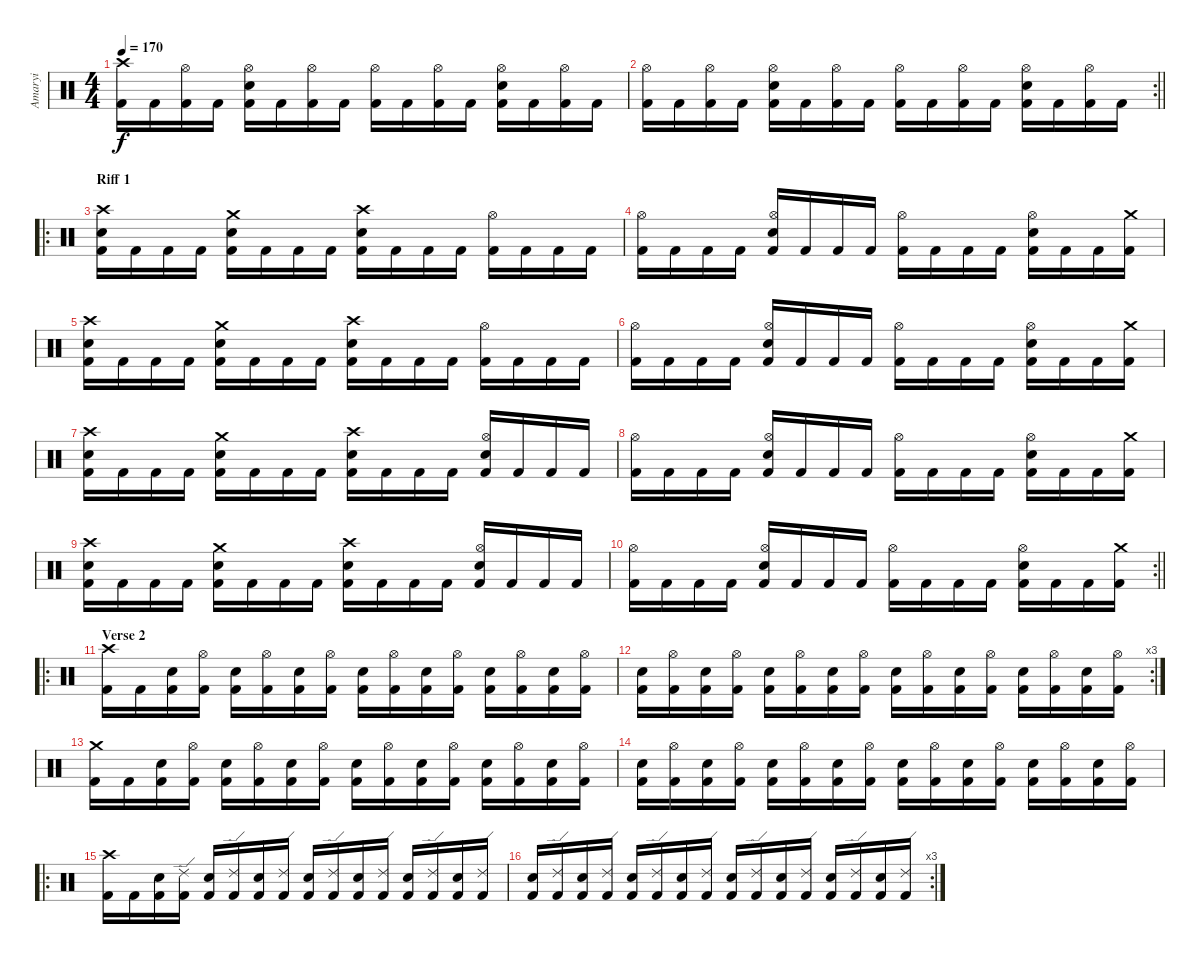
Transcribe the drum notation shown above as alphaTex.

\track ("Amaryi" "Amaryi") {instrument percussion}
\staff {score}
\articulation defaults
\ts (4 4)
\tempo 170
\clef neutral
\ks c
("Crash high (hit)" "Kick (hit) 2").16{dy f} "Kick (hit) 2".16 ("Hi-Hat (open)" "Kick (hit) 2").16 "Kick (hit) 2".16 ("Hi-Hat (open)" "Electric Snare (hit)" "Kick (hit) 2").16 "Kick (hit) 2".16 ("Hi-Hat (open)" "Kick (hit) 2").16 "Kick (hit) 2".16 ("Hi-Hat (open)" "Kick (hit) 2").16 "Kick (hit) 2".16 ("Hi-Hat (open)" "Kick (hit) 2").16 "Kick (hit) 2".16 ("Hi-Hat (open)" "Electric Snare (hit)" "Kick (hit) 2").16 "Kick (hit) 2".16 ("Hi-Hat (open)" "Kick (hit) 2").16 "Kick (hit) 2".16 |
\rc 2
\barLineRight lightlight
("Hi-Hat (open)" "Kick (hit) 2").16 "Kick (hit) 2".16 ("Hi-Hat (open)" "Kick (hit) 2").16 "Kick (hit) 2".16 ("Hi-Hat (open)" "Electric Snare (hit)" "Kick (hit) 2").16 "Kick (hit) 2".16 ("Hi-Hat (open)" "Kick (hit) 2").16 "Kick (hit) 2".16 ("Hi-Hat (open)" "Kick (hit) 2").16 "Kick (hit) 2".16 ("Hi-Hat (open)" "Kick (hit) 2").16 "Kick (hit) 2".16 ("Hi-Hat (open)" "Electric Snare (hit)" "Kick (hit) 2").16 "Kick (hit) 2".16 ("Hi-Hat (open)" "Kick (hit) 2").16 "Kick (hit) 2".16 |
\ro
\section ("" "Riff 1")
("Crash high (hit)" "Electric Snare (hit)" "Kick (hit) 2").16 "Kick (hit) 2".16 "Kick (hit) 2".16 "Kick (hit) 2".16 ("Crash medium (hit)" "Electric Snare (hit)" "Kick (hit) 2").16 "Kick (hit) 2".16 "Kick (hit) 2".16 "Kick (hit) 2".16 ("Crash high (hit)" "Electric Snare (hit)" "Kick (hit) 2").16 "Kick (hit) 2".16 "Kick (hit) 2".16 "Kick (hit) 2".16 ("Hi-Hat (open)" "Kick (hit) 2").16 "Kick (hit) 2".16 "Kick (hit) 2".16 "Kick (hit) 2".16 |
("Hi-Hat (open)" "Kick (hit) 2").16 "Kick (hit) 2".16 "Kick (hit) 2".16 "Kick (hit) 2".16 ("Hi-Hat (open)" "Electric Snare (hit)" "Kick (hit) 2").16 "Kick (hit) 2".16 "Kick (hit) 2".16 "Kick (hit) 2".16 ("Hi-Hat (open)" "Kick (hit) 2").16 "Kick (hit) 2".16 "Kick (hit) 2".16 "Kick (hit) 2".16 ("Hi-Hat (open)" "Electric Snare (hit)" "Kick (hit) 2").16 "Kick (hit) 2".16 "Kick (hit) 2".16 ("Crash medium (hit)" "Kick (hit) 2").16 |
("Crash high (hit)" "Electric Snare (hit)" "Kick (hit) 2").16 "Kick (hit) 2".16 "Kick (hit) 2".16 "Kick (hit) 2".16 ("Crash medium (hit)" "Electric Snare (hit)" "Kick (hit) 2").16 "Kick (hit) 2".16 "Kick (hit) 2".16 "Kick (hit) 2".16 ("Crash high (hit)" "Electric Snare (hit)" "Kick (hit) 2").16 "Kick (hit) 2".16 "Kick (hit) 2".16 "Kick (hit) 2".16 ("Hi-Hat (open)" "Kick (hit) 2").16 "Kick (hit) 2".16 "Kick (hit) 2".16 "Kick (hit) 2".16 |
("Hi-Hat (open)" "Kick (hit) 2").16 "Kick (hit) 2".16 "Kick (hit) 2".16 "Kick (hit) 2".16 ("Hi-Hat (open)" "Electric Snare (hit)" "Kick (hit) 2").16 "Kick (hit) 2".16 "Kick (hit) 2".16 "Kick (hit) 2".16 ("Hi-Hat (open)" "Kick (hit) 2").16 "Kick (hit) 2".16 "Kick (hit) 2".16 "Kick (hit) 2".16 ("Hi-Hat (open)" "Electric Snare (hit)" "Kick (hit) 2").16 "Kick (hit) 2".16 "Kick (hit) 2".16 ("Crash medium (hit)" "Kick (hit) 2").16 |
("Crash high (hit)" "Electric Snare (hit)" "Kick (hit) 2").16 "Kick (hit) 2".16 "Kick (hit) 2".16 "Kick (hit) 2".16 ("Crash medium (hit)" "Electric Snare (hit)" "Kick (hit) 2").16 "Kick (hit) 2".16 "Kick (hit) 2".16 "Kick (hit) 2".16 ("Crash high (hit)" "Electric Snare (hit)" "Kick (hit) 2").16 "Kick (hit) 2".16 "Kick (hit) 2".16 "Kick (hit) 2".16 ("Hi-Hat (open)" "Electric Snare (hit)" "Kick (hit) 2").16 "Kick (hit) 2".16 "Kick (hit) 2".16 "Kick (hit) 2".16 |
("Hi-Hat (open)" "Kick (hit) 2").16 "Kick (hit) 2".16 "Kick (hit) 2".16 "Kick (hit) 2".16 ("Hi-Hat (open)" "Electric Snare (hit)" "Kick (hit) 2").16 "Kick (hit) 2".16 "Kick (hit) 2".16 "Kick (hit) 2".16 ("Hi-Hat (open)" "Kick (hit) 2").16 "Kick (hit) 2".16 "Kick (hit) 2".16 "Kick (hit) 2".16 ("Hi-Hat (open)" "Electric Snare (hit)" "Kick (hit) 2").16 "Kick (hit) 2".16 "Kick (hit) 2".16 ("Crash medium (hit)" "Kick (hit) 2").16 |
("Crash high (hit)" "Electric Snare (hit)" "Kick (hit) 2").16 "Kick (hit) 2".16 "Kick (hit) 2".16 "Kick (hit) 2".16 ("Crash medium (hit)" "Electric Snare (hit)" "Kick (hit) 2").16 "Kick (hit) 2".16 "Kick (hit) 2".16 "Kick (hit) 2".16 ("Crash high (hit)" "Electric Snare (hit)" "Kick (hit) 2").16 "Kick (hit) 2".16 "Kick (hit) 2".16 "Kick (hit) 2".16 ("Hi-Hat (open)" "Electric Snare (hit)" "Kick (hit) 2").16 "Kick (hit) 2".16 "Kick (hit) 2".16 "Kick (hit) 2".16 |
\rc 2
\barLineRight lightlight
("Hi-Hat (open)" "Kick (hit) 2").16 "Kick (hit) 2".16 "Kick (hit) 2".16 "Kick (hit) 2".16 ("Hi-Hat (open)" "Electric Snare (hit)" "Kick (hit) 2").16 "Kick (hit) 2".16 "Kick (hit) 2".16 "Kick (hit) 2".16 ("Hi-Hat (open)" "Kick (hit) 2").16 "Kick (hit) 2".16 "Kick (hit) 2".16 "Kick (hit) 2".16 ("Hi-Hat (open)" "Electric Snare (hit)" "Kick (hit) 2").16 "Kick (hit) 2".16 "Kick (hit) 2".16 ("Crash medium (hit)" "Kick (hit) 2").16 |
\ro
\section ("" "Verse 2")
("Crash high (hit)" "Kick (hit) 2").16 "Kick (hit) 2".16 ("Electric Snare (hit)" "Kick (hit) 2").16 ("Hi-Hat (open)" "Kick (hit) 2").16 ("Electric Snare (hit)" "Kick (hit) 2").16 ("Hi-Hat (open)" "Kick (hit) 2").16 ("Electric Snare (hit)" "Kick (hit) 2").16 ("Hi-Hat (open)" "Kick (hit) 2").16 ("Electric Snare (hit)" "Kick (hit) 2").16 ("Hi-Hat (open)" "Kick (hit) 2").16 ("Electric Snare (hit)" "Kick (hit) 2").16 ("Hi-Hat (open)" "Kick (hit) 2").16 ("Electric Snare (hit)" "Kick (hit) 2").16 ("Hi-Hat (open)" "Kick (hit) 2").16 ("Electric Snare (hit)" "Kick (hit) 2").16 ("Hi-Hat (open)" "Kick (hit) 2").16 |
\rc 3
("Electric Snare (hit)" "Kick (hit) 2").16 ("Hi-Hat (open)" "Kick (hit) 2").16 ("Electric Snare (hit)" "Kick (hit) 2").16 ("Hi-Hat (open)" "Kick (hit) 2").16 ("Electric Snare (hit)" "Kick (hit) 2").16 ("Hi-Hat (open)" "Kick (hit) 2").16 ("Electric Snare (hit)" "Kick (hit) 2").16 ("Hi-Hat (open)" "Kick (hit) 2").16 ("Electric Snare (hit)" "Kick (hit) 2").16 ("Hi-Hat (open)" "Kick (hit) 2").16 ("Electric Snare (hit)" "Kick (hit) 2").16 ("Hi-Hat (open)" "Kick (hit) 2").16 ("Electric Snare (hit)" "Kick (hit) 2").16 ("Hi-Hat (open)" "Kick (hit) 2").16 ("Electric Snare (hit)" "Kick (hit) 2").16 ("Hi-Hat (open)" "Kick (hit) 2").16 |
("Crash medium (hit)" "Kick (hit) 2").16 "Kick (hit) 2".16 ("Electric Snare (hit)" "Kick (hit) 2").16 ("Hi-Hat (open)" "Kick (hit) 2").16 ("Electric Snare (hit)" "Kick (hit) 2").16 ("Hi-Hat (open)" "Kick (hit) 2").16 ("Electric Snare (hit)" "Kick (hit) 2").16 ("Hi-Hat (open)" "Kick (hit) 2").16 ("Electric Snare (hit)" "Kick (hit) 2").16 ("Hi-Hat (open)" "Kick (hit) 2").16 ("Electric Snare (hit)" "Kick (hit) 2").16 ("Hi-Hat (open)" "Kick (hit) 2").16 ("Electric Snare (hit)" "Kick (hit) 2").16 ("Hi-Hat (open)" "Kick (hit) 2").16 ("Electric Snare (hit)" "Kick (hit) 2").16 ("Hi-Hat (open)" "Kick (hit) 2").16 |
("Electric Snare (hit)" "Kick (hit) 2").16 ("Hi-Hat (open)" "Kick (hit) 2").16 ("Electric Snare (hit)" "Kick (hit) 2").16 ("Hi-Hat (open)" "Kick (hit) 2").16 ("Electric Snare (hit)" "Kick (hit) 2").16 ("Hi-Hat (open)" "Kick (hit) 2").16 ("Electric Snare (hit)" "Kick (hit) 2").16 ("Hi-Hat (open)" "Kick (hit) 2").16 ("Electric Snare (hit)" "Kick (hit) 2").16 ("Hi-Hat (open)" "Kick (hit) 2").16 ("Electric Snare (hit)" "Kick (hit) 2").16 ("Hi-Hat (open)" "Kick (hit) 2").16 ("Electric Snare (hit)" "Kick (hit) 2").16 ("Hi-Hat (open)" "Kick (hit) 2").16 ("Electric Snare (hit)" "Kick (hit) 2").16 ("Hi-Hat (open)" "Kick (hit) 2").16 |
\ro
("Crash high (hit)" "Kick (hit) 2").16 "Kick (hit) 2".16 ("Electric Snare (hit)" "Kick (hit) 2").16 ("Ride (edge) 2" "Kick (hit) 2").16 ("Electric Snare (hit)" "Kick (hit) 2").16 ("Ride (edge) 2" "Kick (hit) 2").16 ("Electric Snare (hit)" "Kick (hit) 2").16 ("Ride (edge) 2" "Kick (hit) 2").16 ("Electric Snare (hit)" "Kick (hit) 2").16 ("Ride (edge) 2" "Kick (hit) 2").16 ("Electric Snare (hit)" "Kick (hit) 2").16 ("Ride (edge) 2" "Kick (hit) 2").16 ("Electric Snare (hit)" "Kick (hit) 2").16 ("Ride (edge) 2" "Kick (hit) 2").16 ("Electric Snare (hit)" "Kick (hit) 2").16 ("Ride (edge) 2" "Kick (hit) 2").16 |
\rc 3
("Electric Snare (hit)" "Kick (hit) 2").16 ("Ride (edge) 2" "Kick (hit) 2").16 ("Electric Snare (hit)" "Kick (hit) 2").16 ("Ride (edge) 2" "Kick (hit) 2").16 ("Electric Snare (hit)" "Kick (hit) 2").16 ("Ride (edge) 2" "Kick (hit) 2").16 ("Electric Snare (hit)" "Kick (hit) 2").16 ("Ride (edge) 2" "Kick (hit) 2").16 ("Electric Snare (hit)" "Kick (hit) 2").16 ("Ride (edge) 2" "Kick (hit) 2").16 ("Electric Snare (hit)" "Kick (hit) 2").16 ("Ride (edge) 2" "Kick (hit) 2").16 ("Electric Snare (hit)" "Kick (hit) 2").16 ("Ride (edge) 2" "Kick (hit) 2").16 ("Electric Snare (hit)" "Kick (hit) 2").16 ("Ride (edge) 2" "Kick (hit) 2").16
